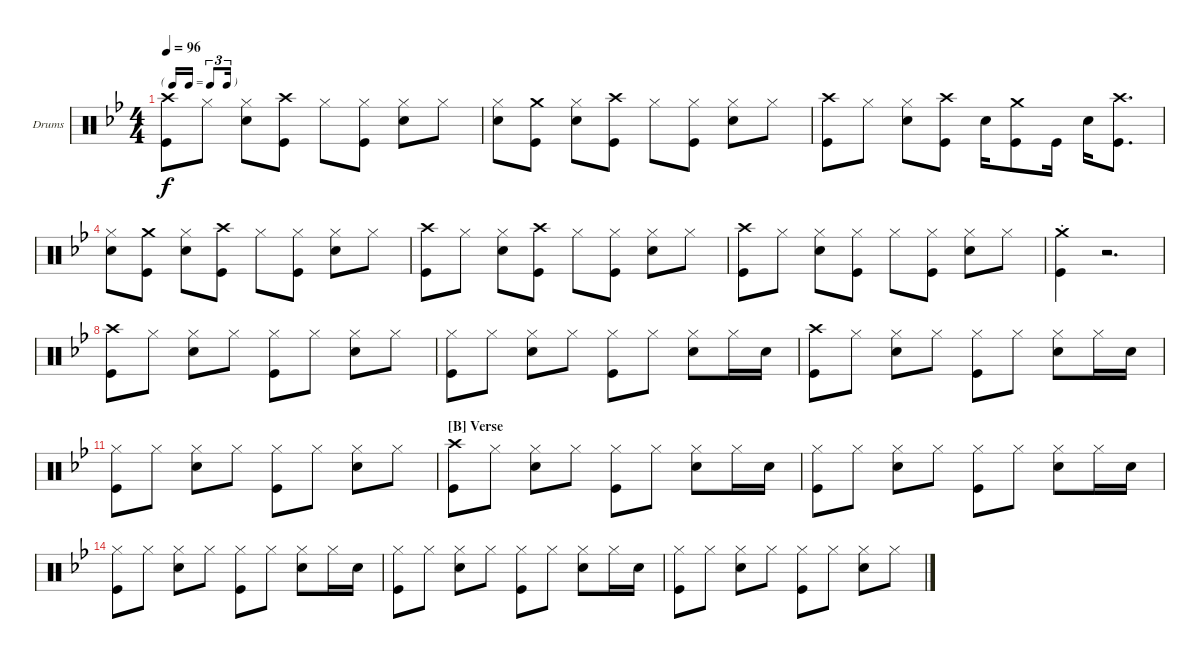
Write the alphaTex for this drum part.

\bracketExtendMode nobrackets
\firstSystemTrackNameOrientation horizontal
\otherSystemsTrackNameOrientation horizontal
\defaultBarNumberDisplay FirstOfSystem
\track ("Randy Castillo" "Drums") {instrument percussion}
\staff {score}
\articulation defaults
\ts (4 4)
\tf triplet16th
\tempo 96
\clef neutral
\scale
0.496465
\ks bb
("Kick (hit)" "Crash high (hit)").8{dy f} "Hi-Hat (closed)".8 ("Hi-Hat (closed)" "Snare (hit) 2").8 ("Kick (hit)" "Crash high (hit)").8 "Hi-Hat (closed)".8 ("Hi-Hat (closed)" "Kick (hit)").8 ("Hi-Hat (closed)" "Snare (hit) 2").8 "Hi-Hat (closed)".8 |
\scale
0.499636 ("Snare (hit) 2" "Hi-Hat (closed)").8 ("Kick (hit)" "Crash medium (hit)").8 ("Snare (hit) 2" "Hi-Hat (closed)").8 ("Kick (hit)" "Crash high (hit)").8 "Hi-Hat (closed)".8 ("Kick (hit)" "Hi-Hat (closed)").8 ("Snare (hit) 2" "Hi-Hat (closed)").8 "Hi-Hat (closed)".8 |
\scale
0.501053 ("Kick (hit)" "Crash high (hit)").8 "Hi-Hat (closed)".8 ("Hi-Hat (closed)" "Snare (hit) 2").8 ("Kick (hit)" "Crash high (hit)").8 "Snare (hit) 2".16 ("Kick (hit)" "Crash medium (hit)").8 "Kick (hit)".16 "Snare (hit) 2".16 ("Kick (hit)" "Crash high (hit)").8{d} |
\scale
0.503597 ("Snare (hit) 2" "Hi-Hat (closed)").8 ("Kick (hit)" "Crash medium (hit)").8 ("Snare (hit) 2" "Hi-Hat (closed)").8 ("Kick (hit)" "Crash high (hit)").8 "Hi-Hat (closed)".8 ("Kick (hit)" "Hi-Hat (closed)").8 ("Snare (hit) 2" "Hi-Hat (closed)").8 "Hi-Hat (closed)".8 |
\scale
0.494505 ("Kick (hit)" "Crash high (hit)").8 "Hi-Hat (closed)".8 ("Hi-Hat (closed)" "Snare (hit) 2").8 ("Kick (hit)" "Crash high (hit)").8 "Hi-Hat (closed)".8 ("Hi-Hat (closed)" "Kick (hit)").8 ("Hi-Hat (closed)" "Snare (hit) 2").8 "Hi-Hat (closed)".8 |
\scale
0.507147 ("Kick (hit)" "Crash high (hit)").8 "Hi-Hat (closed)".8 ("Hi-Hat (closed)" "Snare (hit) 2").8 ("Kick (hit)" "Hi-Hat (closed)").8 "Hi-Hat (closed)".8 ("Hi-Hat (closed)" "Kick (hit)").8 ("Hi-Hat (closed)" "Snare (hit) 2").8 "Hi-Hat (closed)".8 |
\scale
0.492673 ("Kick (hit)" "Crash medium (hit)"{st}).4 r.2{d} |
("Kick (hit)" "Crash high (hit)").8 "Hi-Hat (closed)".8 ("Hi-Hat (closed)" "Snare (hit) 2").8 "Hi-Hat (closed)".8 ("Hi-Hat (closed)" "Kick (hit)").8 "Hi-Hat (closed)".8 ("Hi-Hat (closed)" "Snare (hit) 2").8 "Hi-Hat (closed)".8 |
("Kick (hit)" "Hi-Hat (closed)").8 "Hi-Hat (closed)".8 ("Hi-Hat (closed)" "Snare (hit) 2").8 "Hi-Hat (closed)".8 ("Hi-Hat (closed)" "Kick (hit)").8 "Hi-Hat (closed)".8 ("Hi-Hat (closed)" "Snare (hit) 2").8 "Hi-Hat (closed)".16 "Snare (hit) 2".16 |
("Kick (hit)" "Crash high (hit)").8 "Hi-Hat (closed)".8 ("Hi-Hat (closed)" "Snare (hit) 2").8 "Hi-Hat (closed)".8 ("Hi-Hat (closed)" "Kick (hit)").8 "Hi-Hat (closed)".8 ("Hi-Hat (closed)" "Snare (hit) 2").8 "Hi-Hat (closed)".16 "Snare (hit) 2".16 |
("Kick (hit)" "Hi-Hat (closed)").8 "Hi-Hat (closed)".8 ("Hi-Hat (closed)" "Snare (hit) 2").8 "Hi-Hat (closed)".8 ("Hi-Hat (closed)" "Kick (hit)").8 "Hi-Hat (closed)".8 ("Hi-Hat (closed)" "Snare (hit) 2").8 "Hi-Hat (closed)".8 |
\section ("B" "Verse")
("Kick (hit)" "Crash high (hit)").8 "Hi-Hat (closed)".8 ("Hi-Hat (closed)" "Snare (hit) 2").8 "Hi-Hat (closed)".8 ("Hi-Hat (closed)" "Kick (hit)").8 "Hi-Hat (closed)".8 ("Hi-Hat (closed)" "Snare (hit) 2").8 "Hi-Hat (closed)".16 "Snare (hit) 2".16 |
("Kick (hit)" "Hi-Hat (closed)").8 "Hi-Hat (closed)".8 ("Hi-Hat (closed)" "Snare (hit) 2").8 "Hi-Hat (closed)".8 ("Hi-Hat (closed)" "Kick (hit)").8 "Hi-Hat (closed)".8 ("Hi-Hat (closed)" "Snare (hit) 2").8 "Hi-Hat (closed)".16 "Snare (hit) 2".16 |
("Kick (hit)" "Hi-Hat (closed)").8 "Hi-Hat (closed)".8 ("Hi-Hat (closed)" "Snare (hit) 2").8 "Hi-Hat (closed)".8 ("Hi-Hat (closed)" "Kick (hit)").8 "Hi-Hat (closed)".8 ("Hi-Hat (closed)" "Snare (hit) 2").8 "Hi-Hat (closed)".16 "Snare (hit) 2".16 |
("Kick (hit)" "Hi-Hat (closed)").8 "Hi-Hat (closed)".8 ("Hi-Hat (closed)" "Snare (hit) 2").8 "Hi-Hat (closed)".8 ("Hi-Hat (closed)" "Kick (hit)").8 "Hi-Hat (closed)".8 ("Hi-Hat (closed)" "Snare (hit) 2").8 "Hi-Hat (closed)".16 "Snare (hit) 2".16 |
("Kick (hit)" "Hi-Hat (closed)").8 "Hi-Hat (closed)".8 ("Hi-Hat (closed)" "Snare (hit) 2").8 "Hi-Hat (closed)".8 ("Hi-Hat (closed)" "Kick (hit)").8 "Hi-Hat (closed)".8 ("Hi-Hat (closed)" "Snare (hit) 2").8 "Hi-Hat (closed)".8
